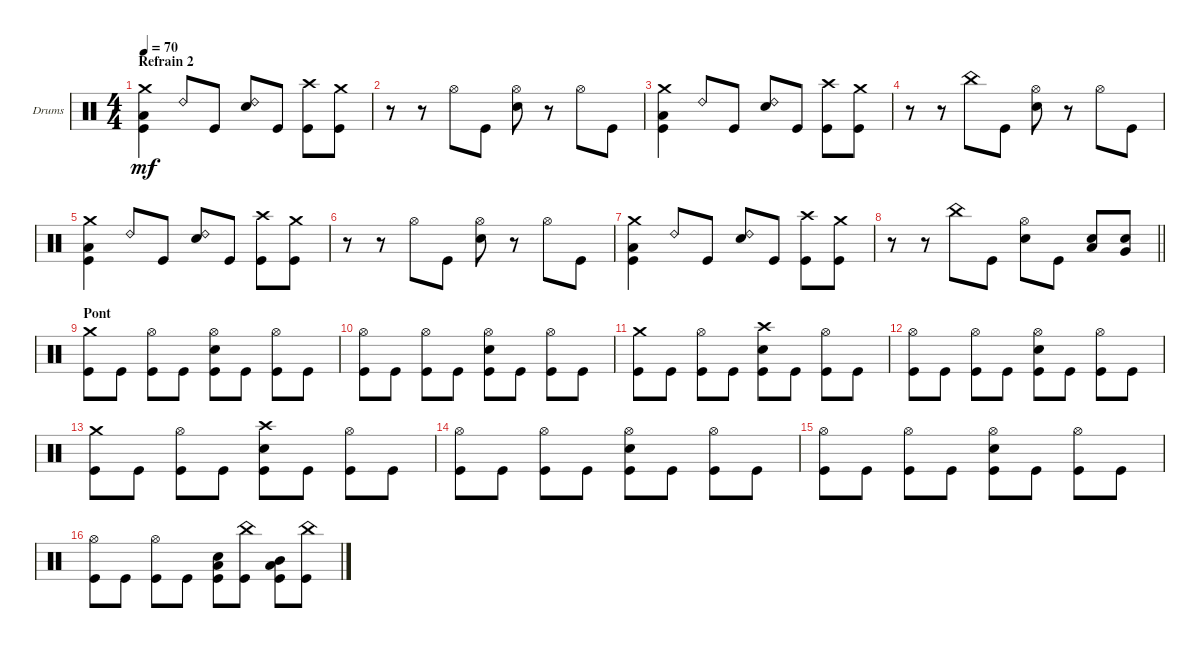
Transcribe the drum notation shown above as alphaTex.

\bracketExtendMode groupsimilarinstruments
\firstSystemTrackNameOrientation horizontal
\otherSystemsTrackNameOrientation horizontal
\track ("Drumkit" "Drums") {instrument percussion}
\staff {score}
\articulation defaults
\ts (4 4)
\section ("" "Refrain 2")
\scale
0.25
\tempo 70
\accidentals auto
\clef neutral
\ottava regular
\simile none
\scale
0.25
\ks c
("Crash medium (hit)" "Kick (hit)" "Low Tom (hit)").4{dy mf} "Ride (bell) 2".8 "Kick (hit)".8 ("Snare (hit) 2" "Ride (bell) 2").8 "Kick (hit)".8 ("Kick (hit)" "Crash high (hit)").8 ("Kick (hit)" "Crash medium (hit)").8 |
\scale
0.25
\scale
0.25 r.8 r.8 "Hi-Hat (open)".8 "Kick (hit)".8 ("Hi-Hat (open)" "Snare (hit) 2").8 r.8 "Hi-Hat (open)".8 "Kick (hit)".8 |
\scale
0.25
\scale
0.25 ("Crash medium (hit)" "Kick (hit)" "Low Tom (hit)").4 "Ride (bell) 2".8 "Kick (hit)".8 ("Snare (hit) 2" "Ride (bell) 2").8 "Kick (hit)".8 ("Kick (hit)" "Crash high (hit)").8 ("Kick (hit)" "Crash medium (hit)").8 |
\scale
0.25
\scale
0.25 r.8 r.8 "China (hit)".8 "Kick (hit)".8 ("Hi-Hat (open)" "Snare (hit) 2").8 r.8 "Hi-Hat (open)".8 "Kick (hit)".8 |
\scale
0.25
\scale
0.25 ("Crash medium (hit)" "Kick (hit)" "Low Tom (hit)").4 "Ride (bell) 2".8 "Kick (hit)".8 ("Snare (hit) 2" "Ride (bell) 2").8 "Kick (hit)".8 ("Kick (hit)" "Crash high (hit)").8 ("Kick (hit)" "Crash medium (hit)").8 |
\scale
0.25
\scale
0.25 r.8 r.8 "Hi-Hat (open)".8 "Kick (hit)".8 ("Hi-Hat (open)" "Snare (hit) 2").8 r.8 "Hi-Hat (open)".8 "Kick (hit)".8 |
\scale
0.25
\scale
0.25 ("Crash medium (hit)" "Kick (hit)" "Low Tom (hit)").4 "Ride (bell) 2".8 "Kick (hit)".8 ("Snare (hit) 2" "Ride (bell) 2").8 "Kick (hit)".8 ("Kick (hit)" "Crash high (hit)").8 ("Kick (hit)" "Crash medium (hit)").8 |
\scale
0.25
\scale
0.25
\barLineRight lightlight
r.8 r.8 "China (hit)".8 "Kick (hit)".8 ("Hi-Hat (open)" "Snare (hit) 2").8 "Kick (hit)".8 ("Snare (hit) 2" "Low Tom (hit)").8 ("Very Low Tom (hit)" "Snare (hit) 2").8 |
\section ("" "Pont")
\scale
0.215596
\scale
0.25 ("Kick (hit)" "Crash medium (hit)").8 "Kick (hit)".8 ("Kick (hit)" "Hi-Hat (open)").8 "Kick (hit)".8 ("Kick (hit)" "Hi-Hat (open)" "Snare (hit) 2").8 "Kick (hit)".8 ("Kick (hit)" "Hi-Hat (open)").8 "Kick (hit)".8 |
\scale
0.284404
\scale
0.25 ("Kick (hit)" "Hi-Hat (open)").8 "Kick (hit)".8 ("Kick (hit)" "Hi-Hat (open)").8 "Kick (hit)".8 ("Kick (hit)" "Hi-Hat (open)" "Snare (hit) 2").8 "Kick (hit)".8 ("Kick (hit)" "Hi-Hat (open)").8 "Kick (hit)".8 |
\scale
0.215596
\scale
0.25 ("Kick (hit)" "Crash medium (hit)").8 "Kick (hit)".8 ("Kick (hit)" "Hi-Hat (open)").8 "Kick (hit)".8 ("Kick (hit)" "Snare (hit) 2" "Crash high (hit)").8 "Kick (hit)".8 ("Kick (hit)" "Hi-Hat (open)").8 "Kick (hit)".8 |
\scale
0.284404
\scale
0.25 ("Kick (hit)" "Hi-Hat (open)").8 "Kick (hit)".8 ("Kick (hit)" "Hi-Hat (open)").8 "Kick (hit)".8 ("Kick (hit)" "Hi-Hat (open)" "Snare (hit) 2").8 "Kick (hit)".8 ("Kick (hit)" "Hi-Hat (open)").8 "Kick (hit)".8 |
\scale
0.215596
\scale
0.25 ("Kick (hit)" "Crash medium (hit)").8 "Kick (hit)".8 ("Kick (hit)" "Hi-Hat (open)").8 "Kick (hit)".8 ("Kick (hit)" "Snare (hit) 2" "Crash high (hit)").8 "Kick (hit)".8 ("Kick (hit)" "Hi-Hat (open)").8 "Kick (hit)".8 |
\scale
0.284404
\scale
0.25 ("Kick (hit)" "Hi-Hat (open)").8 "Kick (hit)".8 ("Kick (hit)" "Hi-Hat (open)").8 "Kick (hit)".8 ("Kick (hit)" "Hi-Hat (open)" "Snare (hit) 2").8 "Kick (hit)".8 ("Kick (hit)" "Hi-Hat (open)").8 "Kick (hit)".8 |
\scale
0.215596
\scale
0.25 ("Kick (hit)" "Hi-Hat (open)").8 "Kick (hit)".8 ("Kick (hit)" "Hi-Hat (open)").8 "Kick (hit)".8 ("Kick (hit)" "Hi-Hat (open)" "Snare (hit) 2").8 "Kick (hit)".8 ("Kick (hit)" "Hi-Hat (open)").8 "Kick (hit)".8 |
\scale
0.284404
\scale
0.25 ("Kick (hit)" "Hi-Hat (open)").8 "Kick (hit)".8 ("Kick (hit)" "Hi-Hat (open)").8 "Kick (hit)".8 ("Snare (hit) 2" "Kick (hit)" "Low Tom (hit)").8 ("Kick (hit)" "China (hit)").8 ("Kick (hit)" "Mid Tom (hit)" "Low Tom (hit)").8 ("Kick (hit)" "China (hit)").8
